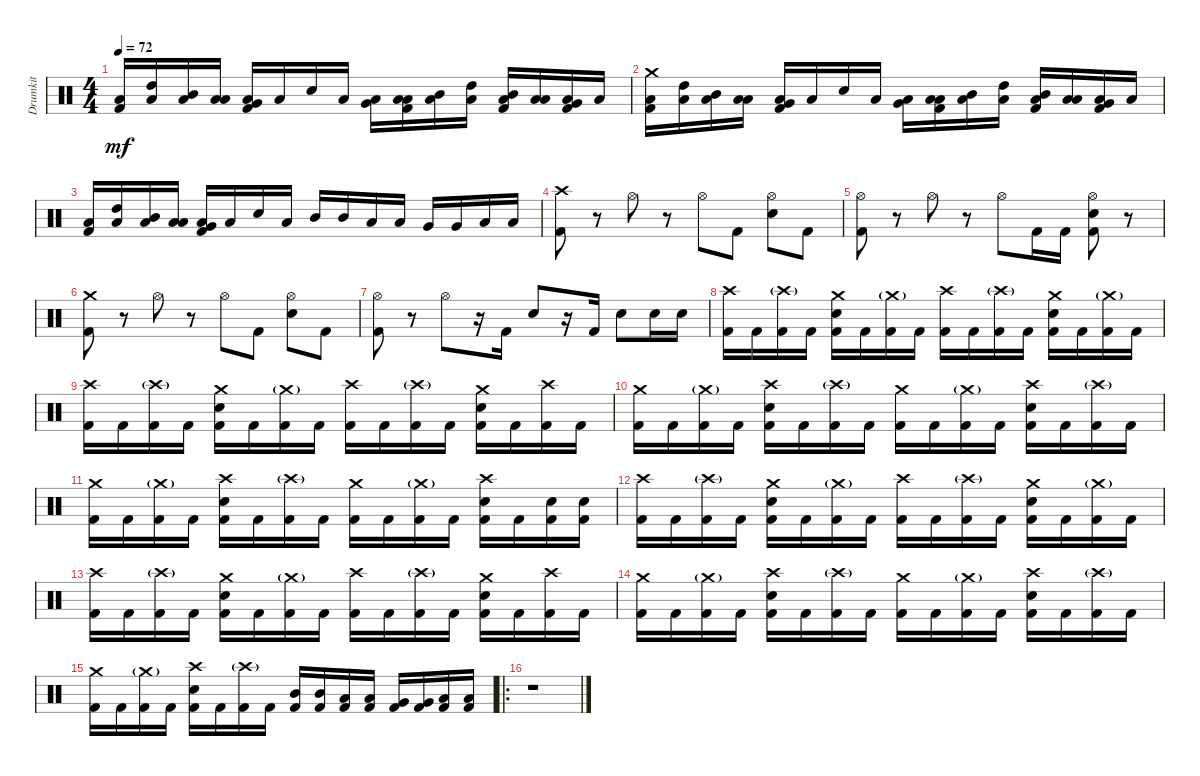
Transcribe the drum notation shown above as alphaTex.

\track ("Drumkit" "Drumkit") {instrument percussion}
\staff {score}
\articulation defaults
\ts (4 4)
\tempo 72
\clef neutral
\ks c
("Low Floor Tom (hit)" "Kick (hit) 2").16{dy mf} ("Low Floor Tom (hit)" "High Tom (hit)").16 ("Low Floor Tom (hit)" "Mid Tom (hit)").16 ("Low Floor Tom (hit)" "Low Tom (hit)").16 ("Low Floor Tom (hit)" "Kick (hit) 2" "Very Low Tom (hit)").16 "Low Floor Tom (hit)".16 "Snare (hit) 2".16 "Low Floor Tom (hit)".16 ("Low Floor Tom (hit)" "Very Low Tom (hit)").16 ("Low Floor Tom (hit)" "Kick (hit) 2" "Low Tom (hit)").16 ("Low Floor Tom (hit)" "Mid Tom (hit)").16 ("Low Floor Tom (hit)" "High Tom (hit)").16 ("Low Floor Tom (hit)" "Mid Tom (hit)" "Kick (hit) 2").16 ("Low Floor Tom (hit)" "Low Tom (hit)").16 ("Low Floor Tom (hit)" "Very Low Tom (hit)" "Kick (hit) 2").16 "Low Floor Tom (hit)".16 |
("Low Floor Tom (hit)" "Kick (hit) 2" "Crash medium (hit)").16 ("Low Floor Tom (hit)" "High Tom (hit)").16 ("Low Floor Tom (hit)" "Mid Tom (hit)").16 ("Low Floor Tom (hit)" "Low Tom (hit)").16 ("Low Floor Tom (hit)" "Kick (hit) 2" "Very Low Tom (hit)").16 "Low Floor Tom (hit)".16 "Snare (hit) 2".16 "Low Floor Tom (hit)".16 ("Low Floor Tom (hit)" "Very Low Tom (hit)").16 ("Low Floor Tom (hit)" "Kick (hit) 2" "Low Tom (hit)").16 ("Low Floor Tom (hit)" "Mid Tom (hit)").16 ("Low Floor Tom (hit)" "High Tom (hit)").16 ("Low Floor Tom (hit)" "Mid Tom (hit)" "Kick (hit) 2").16 ("Low Floor Tom (hit)" "Low Tom (hit)").16 ("Low Floor Tom (hit)" "Very Low Tom (hit)" "Kick (hit) 2").16 "Low Floor Tom (hit)".16 |
("Low Floor Tom (hit)" "Kick (hit) 2").16 ("Low Floor Tom (hit)" "High Tom (hit)").16 ("Low Floor Tom (hit)" "Mid Tom (hit)").16 ("Low Floor Tom (hit)" "Low Tom (hit)").16 ("Low Floor Tom (hit)" "Kick (hit) 2" "Very Low Tom (hit)").16 "Low Floor Tom (hit)".16 "Snare (hit) 2".16 "Low Floor Tom (hit)".16 "Mid Tom (hit)".16 "Mid Tom (hit)".16 "Low Tom (hit)".16 "Low Tom (hit)".16 "Very Low Tom (hit)".16 "Very Low Tom (hit)".16 "Low Floor Tom (hit)".16 "Low Floor Tom (hit)".16 |
("Crash high (hit)" "Kick (hit) 2").8 r.8 "Hi-Hat (open)".8 r.8 "Hi-Hat (open)".8 "Kick (hit) 2".8 ("Hi-Hat (open)" "Snare (hit) 2").8 "Kick (hit) 2".8 |
("Hi-Hat (open)" "Kick (hit) 2").8 r.8 "Hi-Hat (open)".8 r.8 "Hi-Hat (open)".8 "Kick (hit) 2".16 "Kick (hit) 2".16 ("Hi-Hat (open)" "Snare (hit) 2" "Kick (hit) 2").8 r.8 |
("Crash medium (hit)" "Kick (hit) 2").8 r.8 "Hi-Hat (open)".8 r.8 "Hi-Hat (open)".8 "Kick (hit) 2".8 ("Hi-Hat (open)" "Snare (hit) 2").8 "Kick (hit) 2".8 |
("Hi-Hat (open)" "Kick (hit) 2").8 r.8 "Hi-Hat (open)".8 r.16 "Kick (hit) 2".16 "Snare (hit) 2".8 r.16 "Kick (hit) 2".16 "Snare (hit) 2".8 "Snare (hit) 2".16 "Snare (hit) 2".16 |
("Kick (hit) 2" "Crash high (hit)").16 "Kick (hit) 2".16 ("Kick (hit) 2" "Crash high (hit)"{g}).16 "Kick (hit) 2".16 ("Kick (hit) 2" "Crash medium (hit)" "Snare (hit) 2").16 "Kick (hit) 2".16 ("Kick (hit) 2" "Crash medium (hit)"{g}).16 "Kick (hit) 2".16 ("Kick (hit) 2" "Crash high (hit)").16 "Kick (hit) 2".16 ("Kick (hit) 2" "Crash high (hit)"{g}).16 "Kick (hit) 2".16 ("Kick (hit) 2" "Crash medium (hit)" "Snare (hit) 2").16 "Kick (hit) 2".16 ("Kick (hit) 2" "Crash medium (hit)"{g}).16 "Kick (hit) 2".16 |
("Kick (hit) 2" "Crash high (hit)").16 "Kick (hit) 2".16 ("Kick (hit) 2" "Crash high (hit)"{g}).16 "Kick (hit) 2".16 ("Kick (hit) 2" "Crash medium (hit)" "Snare (hit) 2").16 "Kick (hit) 2".16 ("Kick (hit) 2" "Crash medium (hit)"{g}).16 "Kick (hit) 2".16 ("Kick (hit) 2" "Crash high (hit)").16 "Kick (hit) 2".16 ("Kick (hit) 2" "Crash high (hit)"{g}).16 "Kick (hit) 2".16 ("Kick (hit) 2" "Crash medium (hit)" "Snare (hit) 2").16 "Kick (hit) 2".16 ("Kick (hit) 2" "Crash high (hit)").16 "Kick (hit) 2".16 |
("Kick (hit) 2" "Crash medium (hit)").16 "Kick (hit) 2".16 ("Kick (hit) 2" "Crash medium (hit)"{g}).16 "Kick (hit) 2".16 ("Kick (hit) 2" "Crash high (hit)" "Snare (hit) 2").16 "Kick (hit) 2".16 ("Kick (hit) 2" "Crash high (hit)"{g}).16 "Kick (hit) 2".16 ("Kick (hit) 2" "Crash medium (hit)").16 "Kick (hit) 2".16 ("Kick (hit) 2" "Crash medium (hit)"{g}).16 "Kick (hit) 2".16 ("Kick (hit) 2" "Crash high (hit)" "Snare (hit) 2").16 "Kick (hit) 2".16 ("Kick (hit) 2" "Crash high (hit)"{g}).16 "Kick (hit) 2".16 |
("Kick (hit) 2" "Crash medium (hit)").16 "Kick (hit) 2".16 ("Kick (hit) 2" "Crash medium (hit)"{g}).16 "Kick (hit) 2".16 ("Kick (hit) 2" "Crash high (hit)" "Snare (hit) 2").16 "Kick (hit) 2".16 ("Kick (hit) 2" "Crash high (hit)"{g}).16 "Kick (hit) 2".16 ("Kick (hit) 2" "Crash medium (hit)").16 "Kick (hit) 2".16 ("Kick (hit) 2" "Crash medium (hit)"{g}).16 "Kick (hit) 2".16 ("Kick (hit) 2" "Crash high (hit)" "Snare (hit) 2").16 "Kick (hit) 2".16 ("Kick (hit) 2" "Snare (hit) 2").16 ("Kick (hit) 2" "Snare (hit) 2").16 |
("Kick (hit) 2" "Crash high (hit)").16 "Kick (hit) 2".16 ("Kick (hit) 2" "Crash high (hit)"{g}).16 "Kick (hit) 2".16 ("Kick (hit) 2" "Crash medium (hit)" "Snare (hit) 2").16 "Kick (hit) 2".16 ("Kick (hit) 2" "Crash medium (hit)"{g}).16 "Kick (hit) 2".16 ("Kick (hit) 2" "Crash high (hit)").16 "Kick (hit) 2".16 ("Kick (hit) 2" "Crash high (hit)"{g}).16 "Kick (hit) 2".16 ("Kick (hit) 2" "Crash medium (hit)" "Snare (hit) 2").16 "Kick (hit) 2".16 ("Kick (hit) 2" "Crash medium (hit)"{g}).16 "Kick (hit) 2".16 |
("Kick (hit) 2" "Crash high (hit)").16 "Kick (hit) 2".16 ("Kick (hit) 2" "Crash high (hit)"{g}).16 "Kick (hit) 2".16 ("Kick (hit) 2" "Crash medium (hit)" "Snare (hit) 2").16 "Kick (hit) 2".16 ("Kick (hit) 2" "Crash medium (hit)"{g}).16 "Kick (hit) 2".16 ("Kick (hit) 2" "Crash high (hit)").16 "Kick (hit) 2".16 ("Kick (hit) 2" "Crash high (hit)"{g}).16 "Kick (hit) 2".16 ("Kick (hit) 2" "Crash medium (hit)" "Snare (hit) 2").16 "Kick (hit) 2".16 ("Kick (hit) 2" "Crash high (hit)").16 "Kick (hit) 2".16 |
("Kick (hit) 2" "Crash medium (hit)").16 "Kick (hit) 2".16 ("Kick (hit) 2" "Crash medium (hit)"{g}).16 "Kick (hit) 2".16 ("Kick (hit) 2" "Crash high (hit)" "Snare (hit) 2").16 "Kick (hit) 2".16 ("Kick (hit) 2" "Crash high (hit)"{g}).16 "Kick (hit) 2".16 ("Kick (hit) 2" "Crash medium (hit)").16 "Kick (hit) 2".16 ("Kick (hit) 2" "Crash medium (hit)"{g}).16 "Kick (hit) 2".16 ("Kick (hit) 2" "Crash high (hit)" "Snare (hit) 2").16 "Kick (hit) 2".16 ("Kick (hit) 2" "Crash high (hit)"{g}).16 "Kick (hit) 2".16 |
("Kick (hit) 2" "Crash medium (hit)").16 "Kick (hit) 2".16 ("Kick (hit) 2" "Crash medium (hit)"{g}).16 "Kick (hit) 2".16 ("Kick (hit) 2" "Crash high (hit)" "Snare (hit) 2").16 "Kick (hit) 2".16 ("Kick (hit) 2" "Crash high (hit)"{g}).16 "Kick (hit) 2".16 ("Mid Tom (hit)" "Kick (hit) 2").16 ("Mid Tom (hit)" "Kick (hit) 2").16 ("Low Tom (hit)" "Kick (hit) 2").16 ("Low Tom (hit)" "Kick (hit) 2").16 ("Very Low Tom (hit)" "Kick (hit) 2").16 ("Very Low Tom (hit)" "Kick (hit) 2").16 ("Low Floor Tom (hit)" "Kick (hit) 2").16 ("Low Floor Tom (hit)" "Kick (hit) 2").16 |
\ro
r.1
